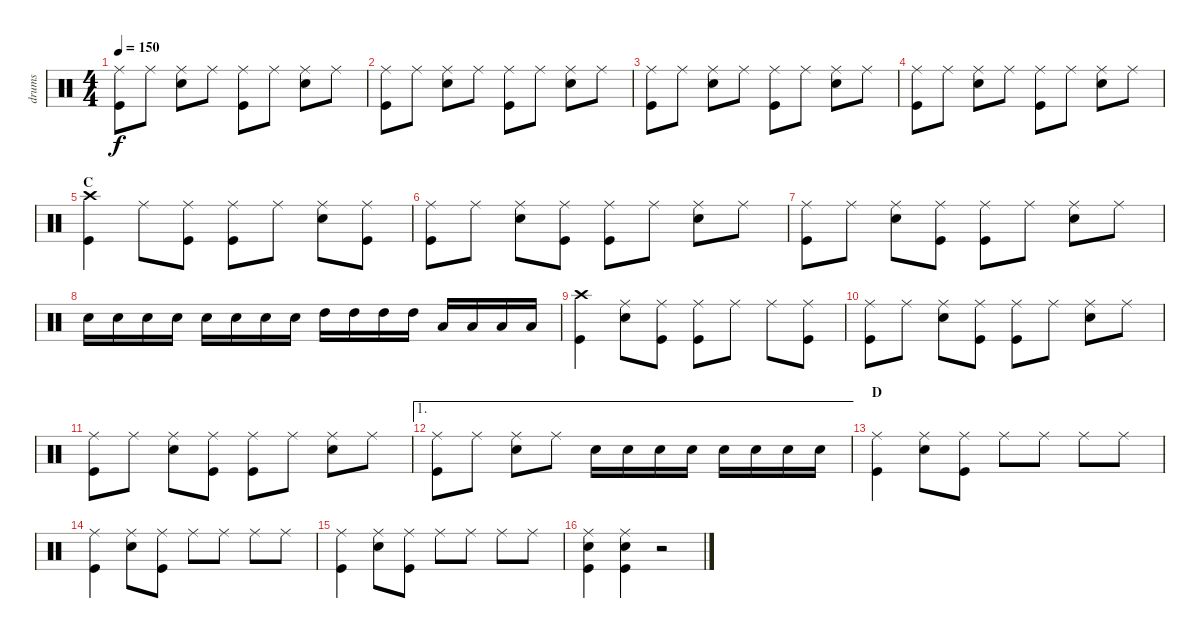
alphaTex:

\track ("drums" "drums") {instrument percussion}
\staff {score}
\articulation defaults
\ts (4 4)
\tempo 150
\clef neutral
\ks c
("Ride (middle)" "Kick (hit)").8{dy f} "Ride (middle)".8 ("Ride (middle)" "Snare (hit) 2").8 "Ride (middle)".8 ("Ride (middle)" "Kick (hit)").8 "Ride (middle)".8 ("Ride (middle)" "Snare (hit) 2").8 "Ride (middle)".8 |
("Ride (middle)" "Kick (hit)").8 "Ride (middle)".8 ("Ride (middle)" "Snare (hit) 2").8 "Ride (middle)".8 ("Ride (middle)" "Kick (hit)").8 "Ride (middle)".8 ("Ride (middle)" "Snare (hit) 2").8 "Ride (middle)".8 |
("Ride (middle)" "Kick (hit)").8 "Ride (middle)".8 ("Ride (middle)" "Snare (hit) 2").8 "Ride (middle)".8 ("Ride (middle)" "Kick (hit)").8 "Ride (middle)".8 ("Ride (middle)" "Snare (hit) 2").8 "Ride (middle)".8 |
("Ride (middle)" "Kick (hit)").8 "Ride (middle)".8 ("Ride (middle)" "Snare (hit) 2").8 "Ride (middle)".8 ("Ride (middle)" "Kick (hit)").8 "Ride (middle)".8 ("Ride (middle)" "Snare (hit) 2").8 "Ride (middle)".8 |
\section ("" "C")
("Crash high (hit)" "Kick (hit)").4 "Ride (middle)".8 ("Ride (middle)" "Kick (hit)").8 ("Ride (middle)" "Kick (hit)").8 "Ride (middle)".8 ("Ride (middle)" "Snare (hit) 2").8 ("Ride (middle)" "Kick (hit)").8 |
("Ride (middle)" "Kick (hit)").8 "Ride (middle)".8 ("Ride (middle)" "Snare (hit) 2").8 ("Ride (middle)" "Kick (hit)").8 ("Ride (middle)" "Kick (hit)").8 "Ride (middle)".8 ("Ride (middle)" "Snare (hit) 2").8 "Ride (middle)".8 |
("Ride (middle)" "Kick (hit)").8 "Ride (middle)".8 ("Ride (middle)" "Snare (hit) 2").8 ("Ride (middle)" "Kick (hit)").8 ("Ride (middle)" "Kick (hit)").8 "Ride (middle)".8 ("Ride (middle)" "Snare (hit) 2").8 "Ride (middle)".8 |
"Snare (hit) 2".16 "Snare (hit) 2".16 "Snare (hit) 2".16 "Snare (hit) 2".16 "Snare (hit) 2".16 "Snare (hit) 2".16 "Snare (hit) 2".16 "Snare (hit) 2".16 "High Tom (hit)".16 "High Tom (hit)".16 "High Tom (hit)".16 "High Tom (hit)".16 "Low Tom (hit)".16 "Low Tom (hit)".16 "Low Tom (hit)".16 "Low Tom (hit)".16 |
("Crash high (hit)" "Kick (hit)").4 ("Ride (middle)" "Snare (hit) 2").8 ("Ride (middle)" "Kick (hit)").8 ("Ride (middle)" "Kick (hit)").8 "Ride (middle)".8 "Ride (middle)".8 ("Ride (middle)" "Kick (hit)").8 |
("Ride (middle)" "Kick (hit)").8 "Ride (middle)".8 ("Ride (middle)" "Snare (hit) 2").8 ("Ride (middle)" "Kick (hit)").8 ("Ride (middle)" "Kick (hit)").8 "Ride (middle)".8 ("Ride (middle)" "Snare (hit) 2").8 "Ride (middle)".8 |
("Ride (middle)" "Kick (hit)").8 "Ride (middle)".8 ("Ride (middle)" "Snare (hit) 2").8 ("Ride (middle)" "Kick (hit)").8 ("Ride (middle)" "Kick (hit)").8 "Ride (middle)".8 ("Ride (middle)" "Snare (hit) 2").8 "Ride (middle)".8 |
\ae 1
("Ride (middle)" "Kick (hit)").8 "Ride (middle)".8 ("Ride (middle)" "Snare (hit) 2").8 "Ride (middle)".8 "Snare (hit) 2".16 "Snare (hit) 2".16 "Snare (hit) 2".16 "Snare (hit) 2".16 "Snare (hit) 2".16 "Snare (hit) 2".16 "Snare (hit) 2".16 "Snare (hit) 2".16 |
\section ("" "D")
("Ride (middle)" "Kick (hit)").4 ("Ride (middle)" "Snare (hit) 2").8 ("Ride (middle)" "Kick (hit)").8 "Ride (middle)".8 "Ride (middle)".8 "Ride (middle)".8 "Ride (middle)".8 |
("Ride (middle)" "Kick (hit)").4 ("Ride (middle)" "Snare (hit) 2").8 ("Ride (middle)" "Kick (hit)").8 "Ride (middle)".8 "Ride (middle)".8 "Ride (middle)".8 "Ride (middle)".8 |
("Ride (middle)" "Kick (hit)").4 ("Ride (middle)" "Snare (hit) 2").8 ("Ride (middle)" "Kick (hit)").8 "Ride (middle)".8 "Ride (middle)".8 "Ride (middle)".8 "Ride (middle)".8 |
("Ride (middle)" "Snare (hit) 2" "Kick (hit)").4 ("Ride (middle)" "Snare (hit) 2" "Kick (hit)").4 r.2
